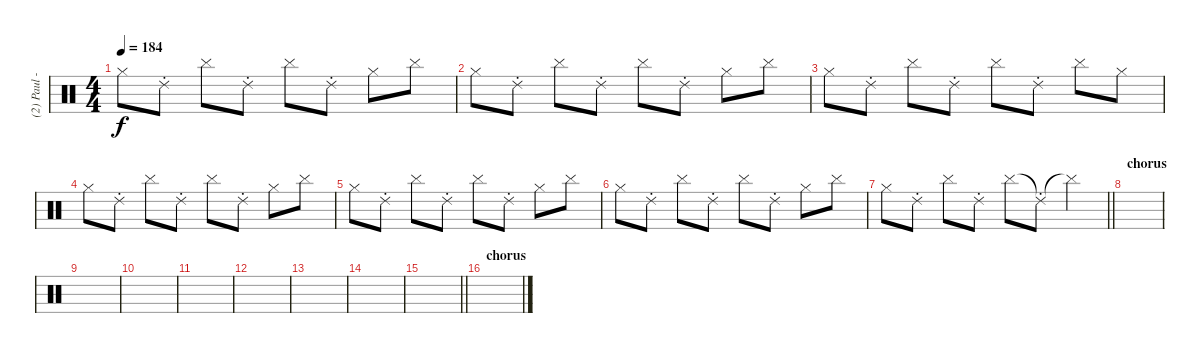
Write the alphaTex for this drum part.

\track ("(2) Paul - DJ" "(2) Paul -") {instrument percussion}
\staff {score}
\articulation defaults
\ts (4 4)
\tempo 184
\clef neutral
\ks c "Hi-Hat (closed)".8{dy f} "Ride (choke) 2".8 "Cymbal (hit)".8 "Ride (choke) 2".8 "Cymbal (hit)".8 "Ride (choke) 2".8 "Hi-Hat (closed)".8 "Cymbal (hit)".8
|
"Hi-Hat (closed)".8 "Ride (choke) 2".8 "Cymbal (hit)".8 "Ride (choke) 2".8 "Cymbal (hit)".8 "Ride (choke) 2".8 "Hi-Hat (closed)".8 "Cymbal (hit)".8 |
"Hi-Hat (closed)".8 "Ride (choke) 2".8 "Cymbal (hit)".8 "Ride (choke) 2".8 "Cymbal (hit)".8 "Ride (choke) 2".8 "Cymbal (hit)".8 "Hi-Hat (closed)".8 |
"Hi-Hat (closed)".8 "Ride (choke) 2".8 "Cymbal (hit)".8 "Ride (choke) 2".8 "Cymbal (hit)".8 "Ride (choke) 2".8 "Hi-Hat (closed)".8 "Cymbal (hit)".8 |
"Hi-Hat (closed)".8 "Ride (choke) 2".8 "Cymbal (hit)".8 "Ride (choke) 2".8 "Cymbal (hit)".8 "Ride (choke) 2".8 "Hi-Hat (closed)".8 "Cymbal (hit)".8 |
"Hi-Hat (closed)".8 "Ride (choke) 2".8 "Cymbal (hit)".8 "Ride (choke) 2".8 "Cymbal (hit)".8 "Ride (choke) 2".8 "Hi-Hat (closed)".8 "Cymbal (hit)".8 |
\barLineRight lightlight "Hi-Hat (closed)".8 "Ride (choke) 2".8 "Cymbal (hit)".8 "Ride (choke) 2".8 "Cymbal (hit)".8 "Ride (choke) 2"{t}.8 "Cymbal (hit)"{t}.4
|
\section ("" "chorus")
|
|
|
|
|
|
|
\barLineRight lightlight
|
\section ("" "chorus")
